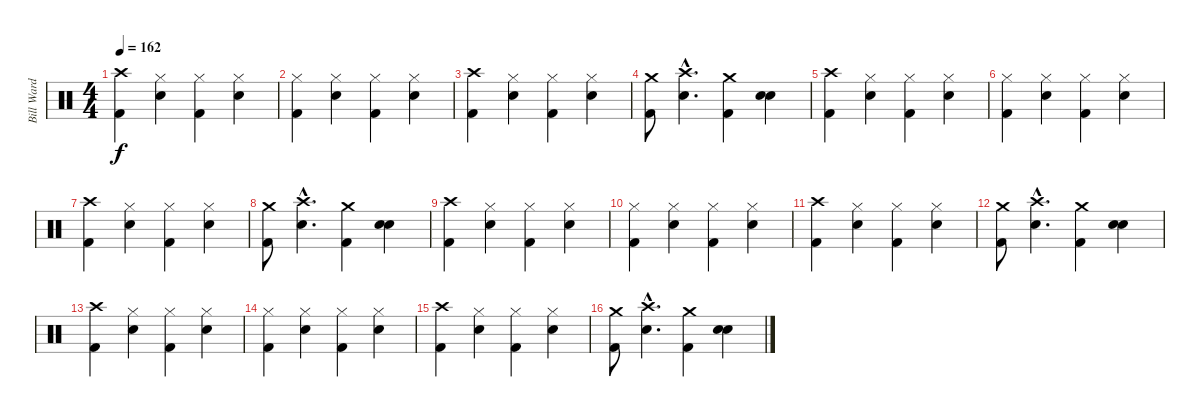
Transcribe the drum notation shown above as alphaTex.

\track ("Bill Ward" "Bill Ward") {instrument percussion}
\staff {score}
\articulation defaults
\ts (4 4)
\tempo 162
\clef neutral
\ks c
("Crash high (hit)" "Kick (hit) 2").4{dy f} ("Hi-Hat (closed)" "Snare (hit) 2").4 ("Hi-Hat (closed)" "Kick (hit) 2").4 ("Hi-Hat (closed)" "Snare (hit) 2").4 |
("Hi-Hat (closed)" "Kick (hit) 2").4 ("Hi-Hat (closed)" "Snare (hit) 2").4 ("Hi-Hat (closed)" "Kick (hit) 2").4 ("Hi-Hat (closed)" "Snare (hit) 2").4 |
("Crash high (hit)" "Kick (hit) 2").4 ("Hi-Hat (closed)" "Snare (hit) 2").4 ("Hi-Hat (closed)" "Kick (hit) 2").4 ("Hi-Hat (closed)" "Snare (hit) 2").4 |
("Kick (hit) 2" "Crash medium (hit)").8 ("Snare (hit) 2"{hac} "Crash high (hit)"{hac}).4{d} ("Kick (hit) 2" "Crash medium (hit)").4 ("Snare (hit) 2" "Snare (hit) 2").4{bd 480} |
("Crash high (hit)" "Kick (hit) 2").4 ("Hi-Hat (closed)" "Snare (hit) 2").4 ("Hi-Hat (closed)" "Kick (hit) 2").4 ("Hi-Hat (closed)" "Snare (hit) 2").4 |
("Hi-Hat (closed)" "Kick (hit) 2").4 ("Hi-Hat (closed)" "Snare (hit) 2").4 ("Hi-Hat (closed)" "Kick (hit) 2").4 ("Hi-Hat (closed)" "Snare (hit) 2").4 |
("Crash high (hit)" "Kick (hit) 2").4 ("Hi-Hat (closed)" "Snare (hit) 2").4 ("Hi-Hat (closed)" "Kick (hit) 2").4 ("Hi-Hat (closed)" "Snare (hit) 2").4 |
("Kick (hit) 2" "Crash medium (hit)").8 ("Snare (hit) 2"{hac} "Crash high (hit)"{hac}).4{d} ("Kick (hit) 2" "Crash medium (hit)").4 ("Snare (hit) 2" "Snare (hit) 2").4{bd 480} |
("Crash high (hit)" "Kick (hit) 2").4 ("Hi-Hat (closed)" "Snare (hit) 2").4 ("Hi-Hat (closed)" "Kick (hit) 2").4 ("Hi-Hat (closed)" "Snare (hit) 2").4 |
("Hi-Hat (closed)" "Kick (hit) 2").4 ("Hi-Hat (closed)" "Snare (hit) 2").4 ("Hi-Hat (closed)" "Kick (hit) 2").4 ("Hi-Hat (closed)" "Snare (hit) 2").4 |
("Crash high (hit)" "Kick (hit) 2").4 ("Hi-Hat (closed)" "Snare (hit) 2").4 ("Hi-Hat (closed)" "Kick (hit) 2").4 ("Hi-Hat (closed)" "Snare (hit) 2").4 |
("Kick (hit) 2" "Crash medium (hit)").8 ("Snare (hit) 2"{hac} "Crash high (hit)"{hac}).4{d} ("Kick (hit) 2" "Crash medium (hit)").4 ("Snare (hit) 2" "Snare (hit) 2").4{bd 480} |
("Crash high (hit)" "Kick (hit) 2").4 ("Hi-Hat (closed)" "Snare (hit) 2").4 ("Hi-Hat (closed)" "Kick (hit) 2").4 ("Hi-Hat (closed)" "Snare (hit) 2").4 |
("Hi-Hat (closed)" "Kick (hit) 2").4 ("Hi-Hat (closed)" "Snare (hit) 2").4 ("Hi-Hat (closed)" "Kick (hit) 2").4 ("Hi-Hat (closed)" "Snare (hit) 2").4 |
("Crash high (hit)" "Kick (hit) 2").4 ("Hi-Hat (closed)" "Snare (hit) 2").4 ("Hi-Hat (closed)" "Kick (hit) 2").4 ("Hi-Hat (closed)" "Snare (hit) 2").4 |
("Kick (hit) 2" "Crash medium (hit)").8 ("Snare (hit) 2"{hac} "Crash high (hit)"{hac}).4{d} ("Kick (hit) 2" "Crash medium (hit)").4 ("Snare (hit) 2" "Snare (hit) 2").4{bd 480}
